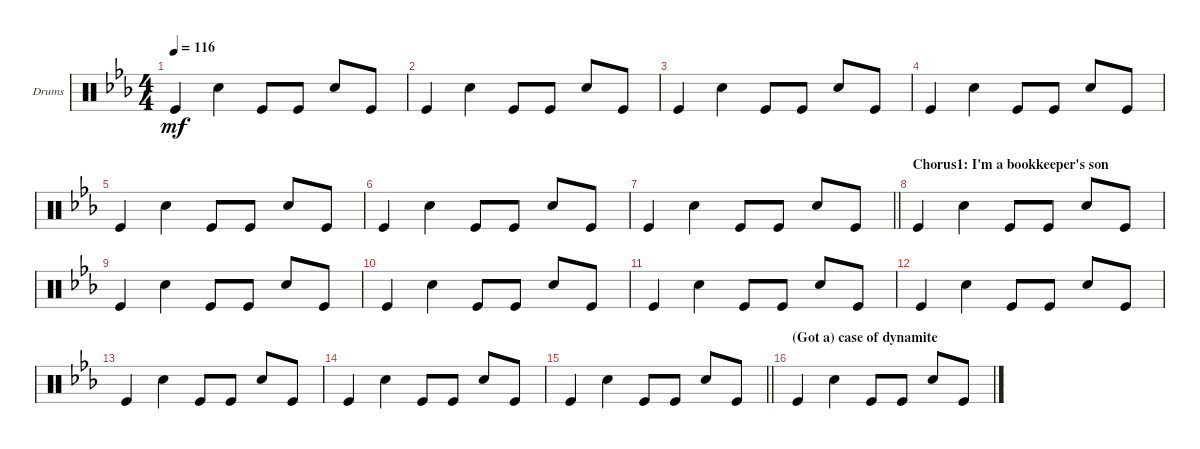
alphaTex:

\defaultSystemsLayout 4
\bracketExtendMode groupsimilarinstruments
\firstSystemTrackNameOrientation horizontal
\otherSystemsTrackNameOrientation horizontal
\track ("Drumkit" "Drums") {instrument percussion}
\staff {score}
\articulation defaults
\ts (4 4)
\tempo 116
\clef neutral
\ks cminor "Kick (hit)".4{dy mf} "Snare (hit) 2".4 "Kick (hit)".8 "Kick (hit)".8 "Snare (hit) 2".8 "Kick (hit)".8
|
"Kick (hit)".4 "Snare (hit) 2".4 "Kick (hit)".8 "Kick (hit)".8 "Snare (hit) 2".8 "Kick (hit)".8 |
"Kick (hit)".4 "Snare (hit) 2".4 "Kick (hit)".8 "Kick (hit)".8 "Snare (hit) 2".8 "Kick (hit)".8 |
"Kick (hit)".4 "Snare (hit) 2".4 "Kick (hit)".8 "Kick (hit)".8 "Snare (hit) 2".8 "Kick (hit)".8 |
"Kick (hit)".4 "Snare (hit) 2".4 "Kick (hit)".8 "Kick (hit)".8 "Snare (hit) 2".8 "Kick (hit)".8 |
"Kick (hit)".4 "Snare (hit) 2".4 "Kick (hit)".8 "Kick (hit)".8 "Snare (hit) 2".8 "Kick (hit)".8 |
\scale
0.699106
\barLineRight lightlight "Kick (hit)".4 "Snare (hit) 2".4 "Kick (hit)".8 "Kick (hit)".8 "Snare (hit) 2".8 "Kick (hit)".8
|
\section ("" "Chorus1: I'm a bookkeeper's son")
\scale
0.300784 "Kick (hit)".4 "Snare (hit) 2".4 "Kick (hit)".8 "Kick (hit)".8 "Snare (hit) 2".8 "Kick (hit)".8 |
\scale
0.396721 "Kick (hit)".4 "Snare (hit) 2".4 "Kick (hit)".8 "Kick (hit)".8 "Snare (hit) 2".8 "Kick (hit)".8 |
\scale
0.267698 "Kick (hit)".4 "Snare (hit) 2".4 "Kick (hit)".8 "Kick (hit)".8 "Snare (hit) 2".8 "Kick (hit)".8 |
\scale
0.334002 "Kick (hit)".4 "Snare (hit) 2".4 "Kick (hit)".8 "Kick (hit)".8 "Snare (hit) 2".8 "Kick (hit)".8 |
"Kick (hit)".4 "Snare (hit) 2".4 "Kick (hit)".8 "Kick (hit)".8 "Snare (hit) 2".8 "Kick (hit)".8 |
"Kick (hit)".4 "Snare (hit) 2".4 "Kick (hit)".8 "Kick (hit)".8 "Snare (hit) 2".8 "Kick (hit)".8 |
"Kick (hit)".4 "Snare (hit) 2".4 "Kick (hit)".8 "Kick (hit)".8 "Snare (hit) 2".8 "Kick (hit)".8 |
\scale
0.536163
\barLineRight lightlight "Kick (hit)".4 "Snare (hit) 2".4 "Kick (hit)".8 "Kick (hit)".8 "Snare (hit) 2".8 "Kick (hit)".8
|
\section ("" "(Got a) case of dynamite")
\scale
0.224021 "Kick (hit)".4 "Snare (hit) 2".4 "Kick (hit)".8 "Kick (hit)".8 "Snare (hit) 2".8 "Kick (hit)".8
